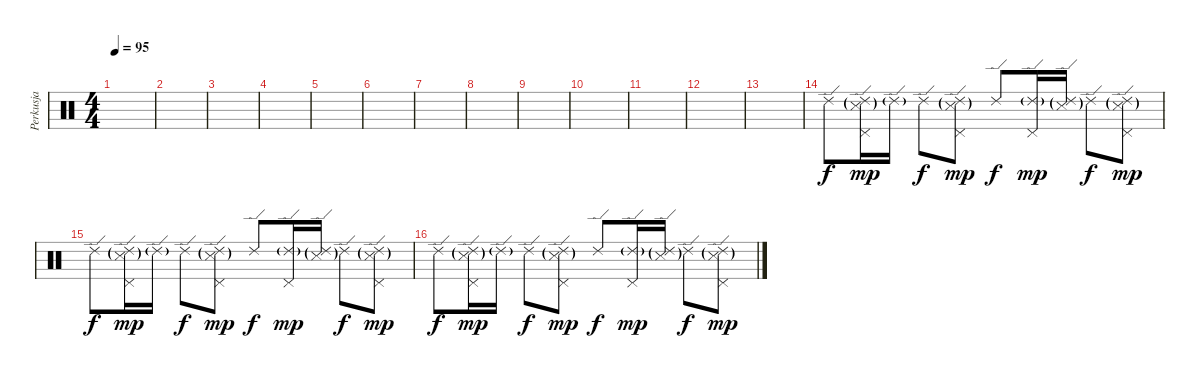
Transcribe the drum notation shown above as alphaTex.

\track ("Perkusja" "Perkusja") {instrument percussion}
\staff {score}
\articulation defaults
\ts (4 4)
\tempo 95
\clef neutral
\ks c
|
|
|
|
|
|
|
|
|
|
|
|
|
"Ride (edge) 2".8 ("Ride (edge) 2"{g} "Pedal Hi-Hat (hit)" "Snare (side stick) 3"{g}).16{dy mp} "Ride (edge) 2"{g}.16 "Ride (edge) 2".8{dy f} ("Ride (edge) 2"{g} "Pedal Hi-Hat (hit)" "Snare (side stick) 3"{g}).8{dy mp} "Ride (edge) 2".8{dy f} ("Ride (edge) 2"{g} "Pedal Hi-Hat (hit)").16{dy mp} ("Ride (edge) 2"{g} "Snare (side stick) 3"{g}).16 "Ride (edge) 2".8{dy f} ("Ride (edge) 2"{g} "Pedal Hi-Hat (hit)" "Snare (side stick) 3"{g}).8{dy mp} |
"Ride (edge) 2".8{dy f} ("Ride (edge) 2"{g} "Pedal Hi-Hat (hit)" "Snare (side stick) 3"{g}).16{dy mp} "Ride (edge) 2"{g}.16 "Ride (edge) 2".8{dy f} ("Ride (edge) 2"{g} "Pedal Hi-Hat (hit)" "Snare (side stick) 3"{g}).8{dy mp} "Ride (edge) 2".8{dy f} ("Ride (edge) 2"{g} "Pedal Hi-Hat (hit)").16{dy mp} ("Ride (edge) 2"{g} "Snare (side stick) 3"{g}).16 "Ride (edge) 2".8{dy f} ("Ride (edge) 2"{g} "Pedal Hi-Hat (hit)" "Snare (side stick) 3"{g}).8{dy mp} |
"Ride (edge) 2".8{dy f} ("Ride (edge) 2"{g} "Pedal Hi-Hat (hit)" "Snare (side stick) 3"{g}).16{dy mp} "Ride (edge) 2"{g}.16 "Ride (edge) 2".8{dy f} ("Ride (edge) 2"{g} "Pedal Hi-Hat (hit)" "Snare (side stick) 3"{g}).8{dy mp} "Ride (edge) 2".8{dy f} ("Ride (edge) 2"{g} "Pedal Hi-Hat (hit)").16{dy mp} ("Ride (edge) 2"{g} "Snare (side stick) 3"{g}).16 "Ride (edge) 2".8{dy f} ("Ride (edge) 2"{g} "Pedal Hi-Hat (hit)" "Snare (side stick) 3"{g}).8{dy mp}
